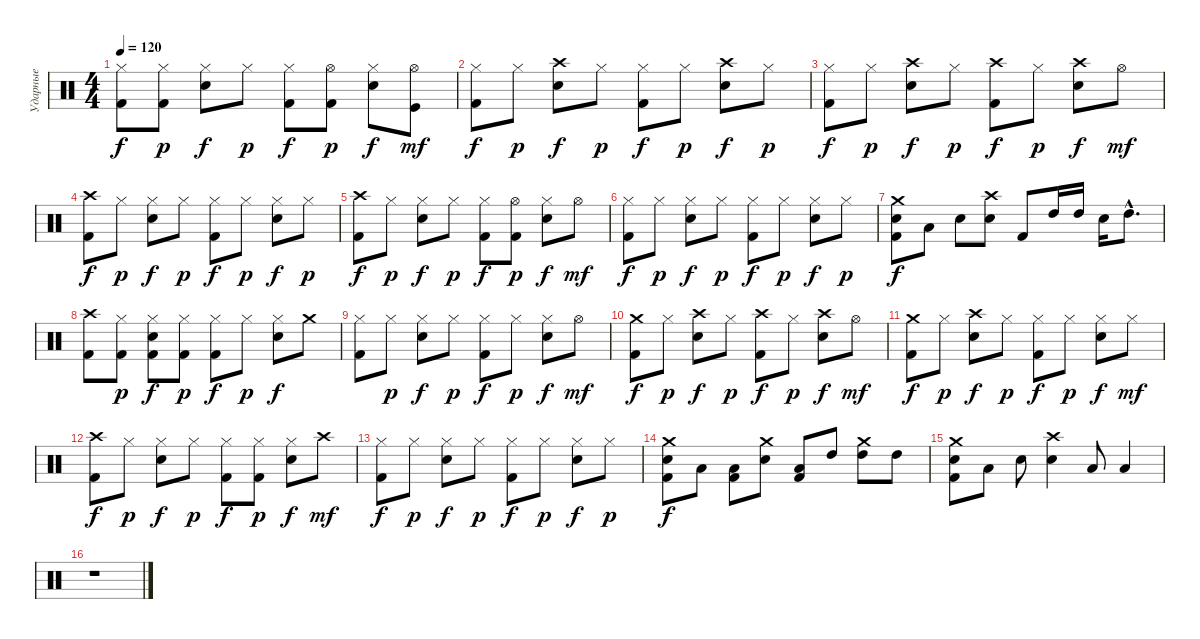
\track ("Ударные" "Ударные") {instrument percussion}
\staff {score}
\articulation defaults
\ts (4 4)
\tempo 120
\clef neutral
\ks c
("Hi-Hat (closed)" "Kick (hit) 2").8{dy f} ("Hi-Hat (closed)" "Kick (hit) 2").8{dy p} ("Hi-Hat (closed)" "Electric Snare (hit)").8{dy f} "Hi-Hat (closed)".8{dy p} ("Hi-Hat (closed)" "Kick (hit) 2").8{dy f} ("Hi-Hat (open)" "Kick (hit) 2").8{dy p} ("Hi-Hat (closed)" "Electric Snare (hit)").8{dy f} ("Hi-Hat (open)" "Kick (hit)").8{dy mf} |
("Hi-Hat (closed)" "Kick (hit) 2").8{dy f} "Hi-Hat (closed)".8{dy p} ("Crash high (hit)" "Electric Snare (hit)").8{dy f} "Hi-Hat (closed)".8{dy p} ("Hi-Hat (closed)" "Kick (hit) 2").8{dy f} "Hi-Hat (closed)".8{dy p} ("Crash high (hit)" "Electric Snare (hit)").8{dy f} "Hi-Hat (closed)".8{dy p} |
("Hi-Hat (closed)" "Kick (hit) 2").8{dy f} "Hi-Hat (closed)".8{dy p} ("Crash high (hit)" "Electric Snare (hit)").8{dy f} "Hi-Hat (closed)".8{dy p} ("Crash high (hit)" "Kick (hit) 2").8{dy f} "Hi-Hat (closed)".8{dy p} ("Crash high (hit)" "Electric Snare (hit)").8{dy f} "Hi-Hat (open)".8{dy mf} |
("Crash high (hit)" "Kick (hit) 2").8{dy f} "Hi-Hat (closed)".8{dy p} ("Hi-Hat (closed)" "Electric Snare (hit)").8{dy f} "Hi-Hat (closed)".8{dy p} ("Hi-Hat (closed)" "Kick (hit) 2").8{dy f} "Hi-Hat (closed)".8{dy p} ("Hi-Hat (closed)" "Electric Snare (hit)").8{dy f} "Hi-Hat (closed)".8{dy p} |
("Crash high (hit)" "Kick (hit) 2").8{dy f} "Hi-Hat (closed)".8{dy p} ("Hi-Hat (closed)" "Electric Snare (hit)").8{dy f} "Hi-Hat (closed)".8{dy p} ("Hi-Hat (closed)" "Kick (hit) 2").8{dy f} ("Hi-Hat (open)" "Kick (hit) 2").8{dy p} ("Hi-Hat (closed)" "Electric Snare (hit)").8{dy f} "Hi-Hat (open)".8{dy mf} |
("Hi-Hat (closed)" "Kick (hit) 2").8{dy f} "Hi-Hat (closed)".8{dy p} ("Hi-Hat (closed)" "Electric Snare (hit)").8{dy f} "Hi-Hat (closed)".8{dy p} ("Hi-Hat (closed)" "Kick (hit) 2").8{dy f} "Hi-Hat (closed)".8{dy p} ("Hi-Hat (closed)" "Electric Snare (hit)").8{dy f} "Hi-Hat (closed)".8{dy p} |
("Crash medium (hit)" "Electric Snare (hit)" "Kick (hit) 2").8{dy f} "Low Tom (hit)".8 "Electric Snare (hit)".8 ("Crash high (hit)" "Electric Snare (hit)").8 "Kick (hit) 2".8 "High Tom (hit)".16 "High Tom (hit)".16 "Electric Snare (hit)".16 "High Tom (hit)"{hac}.8{d} |
("Crash high (hit)" "Kick (hit) 2").8 ("Hi-Hat (closed)" "Kick (hit) 2").8{dy p} ("Hi-Hat (closed)" "Electric Snare (hit)" "Kick (hit) 2").8{dy f} ("Hi-Hat (closed)" "Kick (hit) 2").8{dy p} ("Hi-Hat (closed)" "Kick (hit) 2").8{dy f} "Hi-Hat (closed)".8{dy p} ("Hi-Hat (closed)" "Electric Snare (hit)").8{dy f} "Crash medium (hit)".8 |
("Hi-Hat (closed)" "Kick (hit) 2").8 "Hi-Hat (closed)".8{dy p} ("Hi-Hat (closed)" "Electric Snare (hit)").8{dy f} "Hi-Hat (closed)".8{dy p} ("Hi-Hat (closed)" "Kick (hit) 2").8{dy f} "Hi-Hat (closed)".8{dy p} ("Hi-Hat (closed)" "Electric Snare (hit)").8{dy f} "Hi-Hat (open)".8{dy mf} |
("Crash medium (hit)" "Kick (hit) 2").8{dy f} "Hi-Hat (closed)".8{dy p} ("Crash high (hit)" "Electric Snare (hit)").8{dy f} "Hi-Hat (closed)".8{dy p} ("Crash high (hit)" "Kick (hit) 2").8{dy f} "Hi-Hat (closed)".8{dy p} ("Crash high (hit)" "Electric Snare (hit)").8{dy f} "Hi-Hat (open)".8{dy mf} |
("Crash medium (hit)" "Kick (hit) 2").8{dy f} "Hi-Hat (closed)".8{dy p} ("Crash high (hit)" "Electric Snare (hit)").8{dy f} "Hi-Hat (closed)".8{dy p} ("Hi-Hat (closed)" "Kick (hit) 2").8{dy f} "Hi-Hat (closed)".8{dy p} ("Hi-Hat (closed)" "Electric Snare (hit)").8{dy f} "Hi-Hat (closed)".8{dy mf} |
("Crash high (hit)" "Kick (hit) 2").8{dy f} "Hi-Hat (closed)".8{dy p} ("Hi-Hat (closed)" "Electric Snare (hit)").8{dy f} "Hi-Hat (closed)".8{dy p} ("Hi-Hat (closed)" "Kick (hit) 2").8{dy f} ("Hi-Hat (closed)" "Kick (hit) 2").8{dy p} ("Hi-Hat (closed)" "Electric Snare (hit)").8{dy f} "Crash high (hit)".8{dy mf} |
("Hi-Hat (closed)" "Kick (hit) 2").8{dy f} "Hi-Hat (closed)".8{dy p} ("Hi-Hat (closed)" "Electric Snare (hit)").8{dy f} "Hi-Hat (closed)".8{dy p} ("Hi-Hat (closed)" "Kick (hit) 2").8{dy f} "Hi-Hat (closed)".8{dy p} ("Hi-Hat (closed)" "Electric Snare (hit)").8{dy f} "Hi-Hat (closed)".8{dy p} |
("Crash medium (hit)" "Electric Snare (hit)" "Kick (hit) 2").8{dy f} "Low Tom (hit)".8 ("Low Tom (hit)" "Kick (hit) 2").8 ("Crash medium (hit)" "Electric Snare (hit)").8 ("Low Tom (hit)" "Kick (hit) 2").8 "High Tom (hit)".8 ("Crash medium (hit)" "High Tom (hit)").8 "High Tom (hit)".8 |
("Crash medium (hit)" "Electric Snare (hit)" "Kick (hit) 2").8 "Low Tom (hit)".8 "Electric Snare (hit)".8 ("Crash high (hit)" "Electric Snare (hit)").4 "Low Tom (hit)".8 "Low Tom (hit)".4 |
r.1
